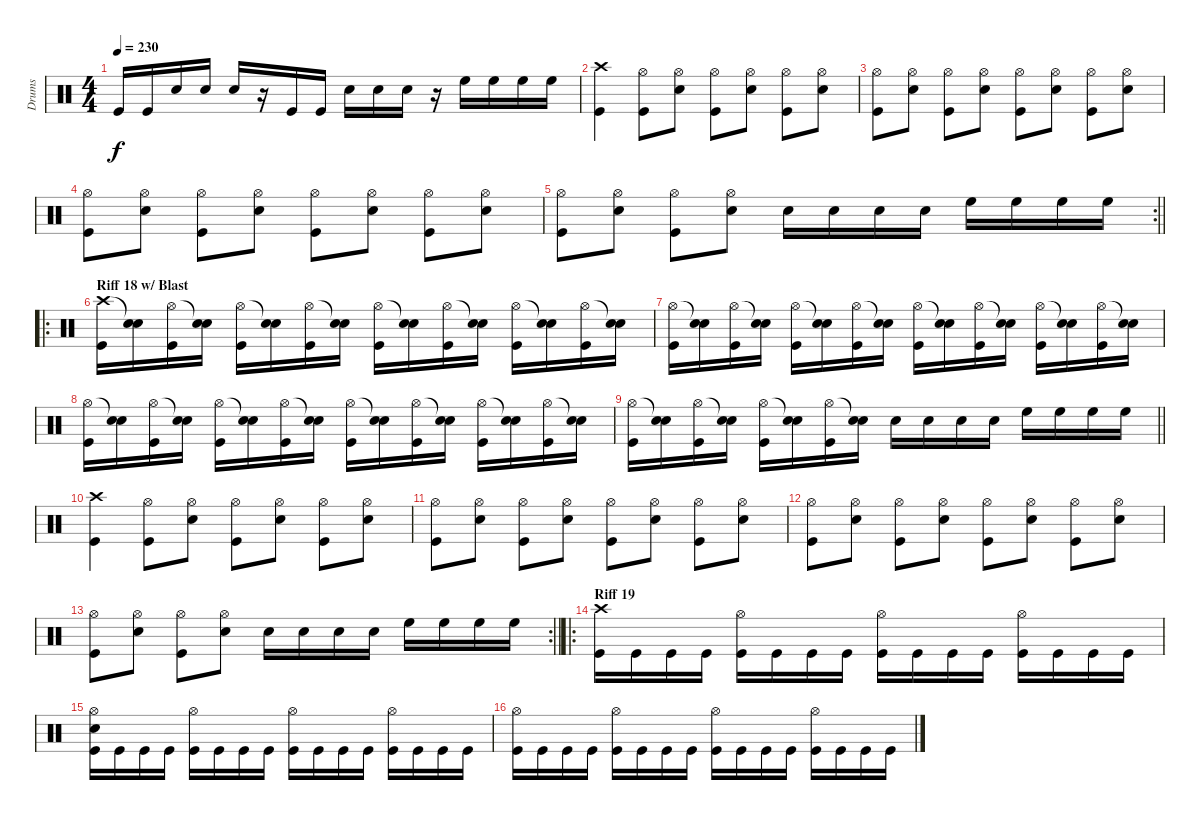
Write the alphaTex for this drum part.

\track ("Drums" "Drums") {instrument percussion}
\staff {score}
\articulation defaults
\ts (4 4)
\tempo 230
\clef neutral
\ks c "Kick (hit)".16{dy f} "Kick (hit)".16 "Electric Snare (hit)".16 "Electric Snare (hit)".16 "Electric Snare (hit)".16
r.16 "Kick (hit)".16 "Kick (hit)".16 "Electric Snare (hit)".16 "Electric Snare (hit)".16 "Electric Snare (hit)".16 r.16 "High Floor Tom (hit)".16 "High Floor Tom (hit)".16 "High Floor Tom (hit)".16 "High Floor Tom (hit)".16 |
("Crash high (hit)" "Kick (hit)").4 ("Hi-Hat (open)" "Kick (hit)").8 ("Hi-Hat (open)" "Electric Snare (hit)").8 ("Hi-Hat (open)" "Kick (hit)").8 ("Hi-Hat (open)" "Electric Snare (hit)").8 ("Hi-Hat (open)" "Kick (hit)").8 ("Hi-Hat (open)" "Electric Snare (hit)").8 |
("Hi-Hat (open)" "Kick (hit)").8 ("Hi-Hat (open)" "Electric Snare (hit)").8 ("Hi-Hat (open)" "Kick (hit)").8 ("Hi-Hat (open)" "Electric Snare (hit)").8 ("Hi-Hat (open)" "Kick (hit)").8 ("Hi-Hat (open)" "Electric Snare (hit)").8 ("Hi-Hat (open)" "Kick (hit)").8 ("Hi-Hat (open)" "Electric Snare (hit)").8 |
("Hi-Hat (open)" "Kick (hit)").8 ("Hi-Hat (open)" "Electric Snare (hit)").8 ("Hi-Hat (open)" "Kick (hit)").8 ("Hi-Hat (open)" "Electric Snare (hit)").8 ("Hi-Hat (open)" "Kick (hit)").8 ("Hi-Hat (open)" "Electric Snare (hit)").8 ("Hi-Hat (open)" "Kick (hit)").8 ("Hi-Hat (open)" "Electric Snare (hit)").8 |
\rc 2
\barLineRight lightlight
("Hi-Hat (open)" "Kick (hit)").8 ("Hi-Hat (open)" "Electric Snare (hit)").8 ("Hi-Hat (open)" "Kick (hit)").8 ("Hi-Hat (open)" "Electric Snare (hit)").8 "Electric Snare (hit)".16 "Electric Snare (hit)".16 "Electric Snare (hit)".16 "Electric Snare (hit)".16 "High Floor Tom (hit)".16 "High Floor Tom (hit)".16 "High Floor Tom (hit)".16 "High Floor Tom (hit)".16 |
\ro
\section ("" "Riff 18 w/ Blast")
("Crash high (hit)" "Kick (hit)").16 ("Snare (hit)"{t} "Electric Snare (hit)").16 ("Hi-Hat (open)" "Kick (hit)").16 ("Snare (hit)"{t} "Electric Snare (hit)").16 ("Hi-Hat (open)" "Kick (hit)").16 ("Snare (hit)"{t} "Electric Snare (hit)").16 ("Hi-Hat (open)" "Kick (hit)").16 ("Snare (hit)"{t} "Electric Snare (hit)").16 ("Hi-Hat (open)" "Kick (hit)").16 ("Snare (hit)"{t} "Electric Snare (hit)").16 ("Hi-Hat (open)" "Kick (hit)").16 ("Snare (hit)"{t} "Electric Snare (hit)").16 ("Hi-Hat (open)" "Kick (hit)").16 ("Snare (hit)"{t} "Electric Snare (hit)").16 ("Hi-Hat (open)" "Kick (hit)").16 ("Snare (hit)"{t} "Electric Snare (hit)").16 |
("Hi-Hat (open)" "Kick (hit)").16 ("Snare (hit)"{t} "Electric Snare (hit)").16 ("Hi-Hat (open)" "Kick (hit)").16 ("Snare (hit)"{t} "Electric Snare (hit)").16 ("Hi-Hat (open)" "Kick (hit)").16 ("Snare (hit)"{t} "Electric Snare (hit)").16 ("Hi-Hat (open)" "Kick (hit)").16 ("Snare (hit)"{t} "Electric Snare (hit)").16 ("Hi-Hat (open)" "Kick (hit)").16 ("Snare (hit)"{t} "Electric Snare (hit)").16 ("Hi-Hat (open)" "Kick (hit)").16 ("Snare (hit)"{t} "Electric Snare (hit)").16 ("Hi-Hat (open)" "Kick (hit)").16 ("Snare (hit)"{t} "Electric Snare (hit)").16 ("Hi-Hat (open)" "Kick (hit)").16 ("Snare (hit)"{t} "Electric Snare (hit)").16 |
("Hi-Hat (open)" "Kick (hit)").16 ("Snare (hit)"{t} "Electric Snare (hit)").16 ("Hi-Hat (open)" "Kick (hit)").16 ("Snare (hit)"{t} "Electric Snare (hit)").16 ("Hi-Hat (open)" "Kick (hit)").16 ("Snare (hit)"{t} "Electric Snare (hit)").16 ("Hi-Hat (open)" "Kick (hit)").16 ("Snare (hit)"{t} "Electric Snare (hit)").16 ("Hi-Hat (open)" "Kick (hit)").16 ("Snare (hit)"{t} "Electric Snare (hit)").16 ("Hi-Hat (open)" "Kick (hit)").16 ("Snare (hit)"{t} "Electric Snare (hit)").16 ("Hi-Hat (open)" "Kick (hit)").16 ("Snare (hit)"{t} "Electric Snare (hit)").16 ("Hi-Hat (open)" "Kick (hit)").16 ("Snare (hit)"{t} "Electric Snare (hit)").16 |
\barLineRight lightlight
("Hi-Hat (open)" "Kick (hit)").16 ("Snare (hit)"{t} "Electric Snare (hit)").16 ("Hi-Hat (open)" "Kick (hit)").16 ("Snare (hit)"{t} "Electric Snare (hit)").16 ("Hi-Hat (open)" "Kick (hit)").16 ("Snare (hit)"{t} "Electric Snare (hit)").16 ("Hi-Hat (open)" "Kick (hit)").16 ("Snare (hit)"{t} "Electric Snare (hit)").16 "Electric Snare (hit)".16 "Electric Snare (hit)".16 "Electric Snare (hit)".16 "Electric Snare (hit)".16 "High Floor Tom (hit)".16 "High Floor Tom (hit)".16 "High Floor Tom (hit)".16 "High Floor Tom (hit)".16 |
("Crash high (hit)" "Kick (hit)").4 ("Hi-Hat (open)" "Kick (hit)").8 ("Hi-Hat (open)" "Electric Snare (hit)").8 ("Hi-Hat (open)" "Kick (hit)").8 ("Hi-Hat (open)" "Electric Snare (hit)").8 ("Hi-Hat (open)" "Kick (hit)").8 ("Hi-Hat (open)" "Electric Snare (hit)").8 |
("Hi-Hat (open)" "Kick (hit)").8 ("Hi-Hat (open)" "Electric Snare (hit)").8 ("Hi-Hat (open)" "Kick (hit)").8 ("Hi-Hat (open)" "Electric Snare (hit)").8 ("Hi-Hat (open)" "Kick (hit)").8 ("Hi-Hat (open)" "Electric Snare (hit)").8 ("Hi-Hat (open)" "Kick (hit)").8 ("Hi-Hat (open)" "Electric Snare (hit)").8 |
("Hi-Hat (open)" "Kick (hit)").8 ("Hi-Hat (open)" "Electric Snare (hit)").8 ("Hi-Hat (open)" "Kick (hit)").8 ("Hi-Hat (open)" "Electric Snare (hit)").8 ("Hi-Hat (open)" "Kick (hit)").8 ("Hi-Hat (open)" "Electric Snare (hit)").8 ("Hi-Hat (open)" "Kick (hit)").8 ("Hi-Hat (open)" "Electric Snare (hit)").8 |
\rc 2
\barLineRight lightlight
("Hi-Hat (open)" "Kick (hit)").8 ("Hi-Hat (open)" "Electric Snare (hit)").8 ("Hi-Hat (open)" "Kick (hit)").8 ("Hi-Hat (open)" "Electric Snare (hit)").8 "Electric Snare (hit)".16 "Electric Snare (hit)".16 "Electric Snare (hit)".16 "Electric Snare (hit)".16 "High Floor Tom (hit)".16 "High Floor Tom (hit)".16 "High Floor Tom (hit)".16 "High Floor Tom (hit)".16 |
\ro
\section ("" "Riff 19")
("Crash high (hit)" "Kick (hit)").16 "Kick (hit)".16 "Kick (hit)".16 "Kick (hit)".16 ("Hi-Hat (open)" "Kick (hit)").16 "Kick (hit)".16 "Kick (hit)".16 "Kick (hit)".16 ("Hi-Hat (open)" "Kick (hit)").16 "Kick (hit)".16 "Kick (hit)".16 "Kick (hit)".16 ("Hi-Hat (open)" "Kick (hit)").16 "Kick (hit)".16 "Kick (hit)".16 "Kick (hit)".16 |
("Hi-Hat (open)" "Electric Snare (hit)" "Kick (hit)").16 "Kick (hit)".16 "Kick (hit)".16 "Kick (hit)".16 ("Hi-Hat (open)" "Kick (hit)").16 "Kick (hit)".16 "Kick (hit)".16 "Kick (hit)".16 ("Hi-Hat (open)" "Kick (hit)").16 "Kick (hit)".16 "Kick (hit)".16 "Kick (hit)".16 ("Hi-Hat (open)" "Kick (hit)").16 "Kick (hit)".16 "Kick (hit)".16 "Kick (hit)".16 |
("Hi-Hat (open)" "Kick (hit)").16 "Kick (hit)".16 "Kick (hit)".16 "Kick (hit)".16 ("Hi-Hat (open)" "Kick (hit)").16 "Kick (hit)".16 "Kick (hit)".16 "Kick (hit)".16 ("Hi-Hat (open)" "Kick (hit)").16 "Kick (hit)".16 "Kick (hit)".16 "Kick (hit)".16 ("Hi-Hat (open)" "Kick (hit)").16 "Kick (hit)".16 "Kick (hit)".16 "Kick (hit)".16
